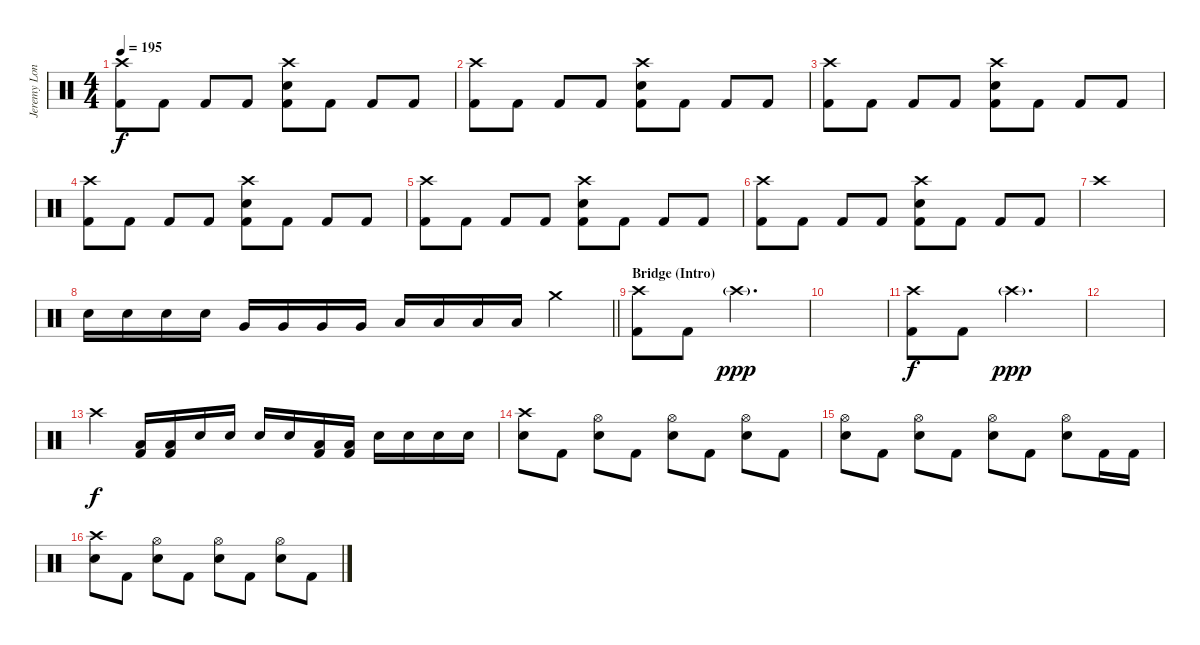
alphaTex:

\track ("Jeremy London" "Jeremy Lon") {instrument percussion}
\staff {score}
\articulation defaults
\ts (4 4)
\tempo 195
\clef neutral
\ks c
("Crash high (hit)" "Kick (hit) 2").8{dy f} "Kick (hit) 2".8 "Kick (hit) 2".8 "Kick (hit) 2".8 ("Crash high (hit)" "Electric Snare (hit)" "Kick (hit) 2").8 "Kick (hit) 2".8 "Kick (hit) 2".8 "Kick (hit) 2".8 |
("Crash high (hit)" "Kick (hit) 2").8 "Kick (hit) 2".8 "Kick (hit) 2".8 "Kick (hit) 2".8 ("Crash high (hit)" "Electric Snare (hit)" "Kick (hit) 2").8 "Kick (hit) 2".8 "Kick (hit) 2".8 "Kick (hit) 2".8 |
("Crash high (hit)" "Kick (hit) 2").8 "Kick (hit) 2".8 "Kick (hit) 2".8 "Kick (hit) 2".8 ("Crash high (hit)" "Electric Snare (hit)" "Kick (hit) 2").8 "Kick (hit) 2".8 "Kick (hit) 2".8 "Kick (hit) 2".8 |
("Crash high (hit)" "Kick (hit) 2").8 "Kick (hit) 2".8 "Kick (hit) 2".8 "Kick (hit) 2".8 ("Crash high (hit)" "Electric Snare (hit)" "Kick (hit) 2").8 "Kick (hit) 2".8 "Kick (hit) 2".8 "Kick (hit) 2".8 |
("Crash high (hit)" "Kick (hit) 2").8 "Kick (hit) 2".8 "Kick (hit) 2".8 "Kick (hit) 2".8 ("Crash high (hit)" "Electric Snare (hit)" "Kick (hit) 2").8 "Kick (hit) 2".8 "Kick (hit) 2".8 "Kick (hit) 2".8 |
("Crash high (hit)" "Kick (hit) 2").8 "Kick (hit) 2".8 "Kick (hit) 2".8 "Kick (hit) 2".8 ("Crash high (hit)" "Electric Snare (hit)" "Kick (hit) 2").8 "Kick (hit) 2".8 "Kick (hit) 2".8 "Kick (hit) 2".8 |
"Crash high (hit)".1 |
\barLineRight lightlight "Electric Snare (hit)".16 "Electric Snare (hit)".16 "Electric Snare (hit)".16 "Electric Snare (hit)".16 "Very Low Tom (hit)".16 "Very Low Tom (hit)".16 "Very Low Tom (hit)".16 "Very Low Tom (hit)".16 "Low Floor Tom (hit)".16 "Low Floor Tom (hit)".16 "Low Floor Tom (hit)".16 "Low Floor Tom (hit)".16 "Crash medium (hit)".4
|
\section ("" "Bridge (Intro)")
("Crash high (hit)" "Kick (hit) 2").8 "Kick (hit) 2".8 "Crash high (hit)"{g}.2{d dy ppp} |
|
("Crash high (hit)" "Kick (hit) 2").8{dy f} "Kick (hit) 2".8 "Crash high (hit)"{g}.2{d dy ppp} |
|
"Crash high (hit)".4{dy f} ("Low Floor Tom (hit)" "Kick (hit) 2").16 ("Low Floor Tom (hit)" "Kick (hit) 2").16 "Electric Snare (hit)".16 "Electric Snare (hit)".16 "Electric Snare (hit)".16 "Electric Snare (hit)".16 ("Low Floor Tom (hit)" "Kick (hit) 2").16 ("Low Floor Tom (hit)" "Kick (hit) 2").16 "Electric Snare (hit)".16 "Electric Snare (hit)".16 "Electric Snare (hit)".16 "Electric Snare (hit)".16 |
("Crash high (hit)" "Electric Snare (hit)").8 "Kick (hit) 2".8 ("Hi-Hat (open)" "Electric Snare (hit)").8 "Kick (hit) 2".8 ("Hi-Hat (open)" "Electric Snare (hit)").8 "Kick (hit) 2".8 ("Hi-Hat (open)" "Electric Snare (hit)").8 "Kick (hit) 2".8 |
("Hi-Hat (open)" "Electric Snare (hit)").8 "Kick (hit) 2".8 ("Hi-Hat (open)" "Electric Snare (hit)").8 "Kick (hit) 2".8 ("Hi-Hat (open)" "Electric Snare (hit)").8 "Kick (hit) 2".8 ("Hi-Hat (open)" "Electric Snare (hit)").8 "Kick (hit) 2".16 "Kick (hit) 2".16 |
("Crash high (hit)" "Electric Snare (hit)").8 "Kick (hit) 2".8 ("Hi-Hat (open)" "Electric Snare (hit)").8 "Kick (hit) 2".8 ("Hi-Hat (open)" "Electric Snare (hit)").8 "Kick (hit) 2".8 ("Hi-Hat (open)" "Electric Snare (hit)").8 "Kick (hit) 2".8
